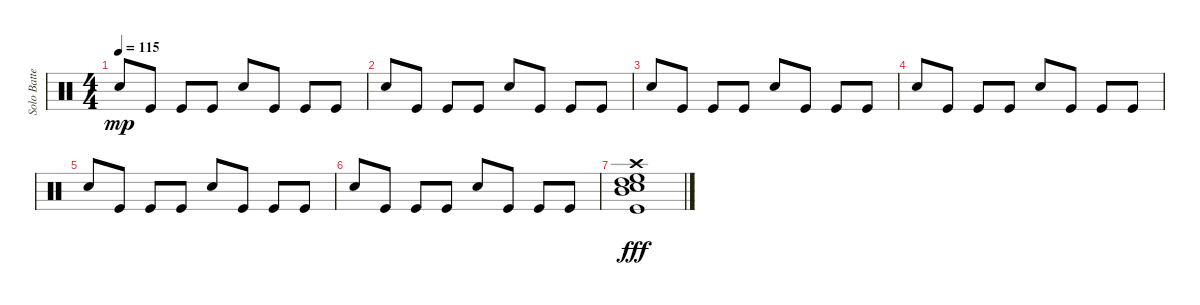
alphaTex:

\track ("Solo Batterie" "Solo Batte") {instrument percussion}
\staff {score}
\articulation defaults
\ts (4 4)
\tempo 115
\clef neutral
\ks c "Snare (hit) 2".8{dy mp} "Kick (hit)".8 "Kick (hit)".8 "Kick (hit)".8 "Snare (hit) 2".8 "Kick (hit)".8 "Kick (hit)".8 "Kick (hit)".8
|
"Snare (hit) 2".8 "Kick (hit)".8 "Kick (hit)".8 "Kick (hit)".8 "Snare (hit) 2".8 "Kick (hit)".8 "Kick (hit)".8 "Kick (hit)".8 |
"Snare (hit) 2".8 "Kick (hit)".8 "Kick (hit)".8 "Kick (hit)".8 "Snare (hit) 2".8 "Kick (hit)".8 "Kick (hit)".8 "Kick (hit)".8 |
"Snare (hit) 2".8 "Kick (hit)".8 "Kick (hit)".8 "Kick (hit)".8 "Snare (hit) 2".8 "Kick (hit)".8 "Kick (hit)".8 "Kick (hit)".8 |
"Snare (hit) 2".8 "Kick (hit)".8 "Kick (hit)".8 "Kick (hit)".8 "Snare (hit) 2".8 "Kick (hit)".8 "Kick (hit)".8 "Kick (hit)".8 |
"Snare (hit) 2".8 "Kick (hit)".8 "Kick (hit)".8 "Kick (hit)".8 "Snare (hit) 2".8 "Kick (hit)".8 "Kick (hit)".8 "Kick (hit)".8 |
("Crash high (hit)" "Kick (hit)" "Snare (hit) 2" "High Floor Tom (hit)" "High Tom (hit)" "Mid Tom (hit)").1{dy fff}
